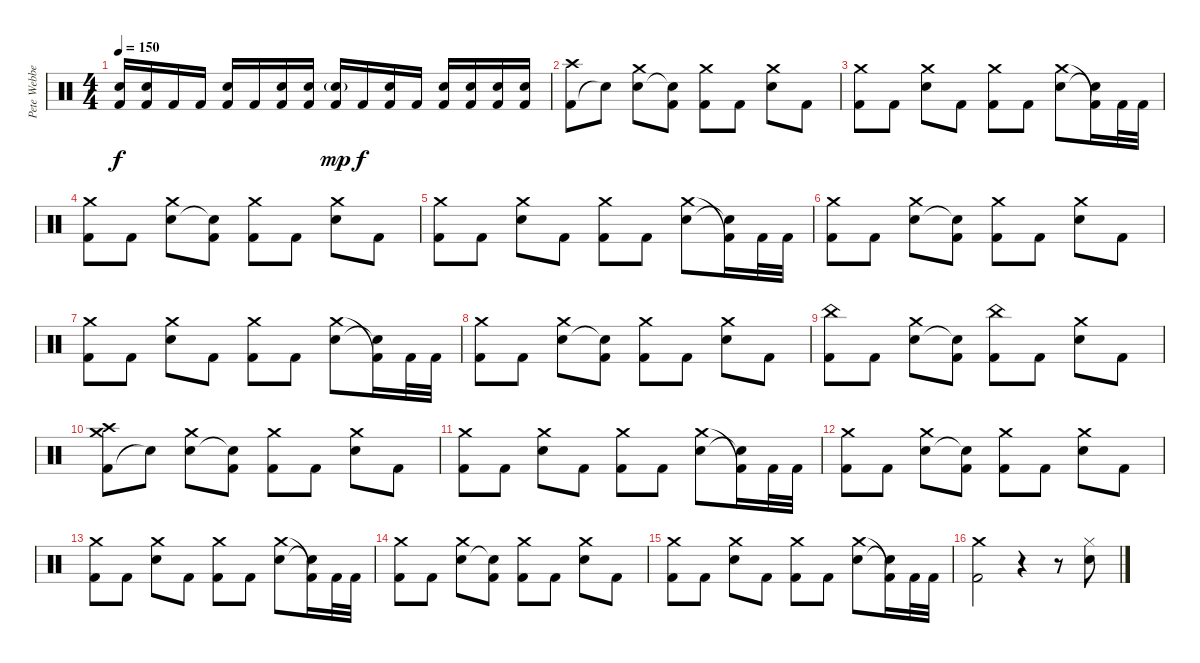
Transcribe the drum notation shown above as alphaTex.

\track ("Pete Webber" "Pete Webbe") {instrument percussion}
\staff {score}
\articulation defaults
\ts (4 4)
\tempo 150
\clef neutral
\ks c
("Electric Snare (hit)" "Kick (hit) 2").16{dy f} ("Electric Snare (hit)" "Kick (hit) 2").16 "Kick (hit) 2".16 "Kick (hit) 2".16 ("Electric Snare (hit)" "Kick (hit) 2").16 "Kick (hit) 2".16 ("Electric Snare (hit)" "Kick (hit) 2").16 ("Electric Snare (hit)" "Kick (hit) 2").16 ("Electric Snare (hit)"{g} "Kick (hit) 2").16{dy mp} "Kick (hit) 2".16{dy f} ("Electric Snare (hit)" "Kick (hit) 2").16 "Kick (hit) 2".16 ("Electric Snare (hit)" "Kick (hit) 2").16 ("Electric Snare (hit)" "Kick (hit) 2").16 ("Electric Snare (hit)" "Kick (hit) 2").16 ("Electric Snare (hit)" "Kick (hit) 2").16 |
("Kick (hit) 2" "Crash high (hit)").8 "Snare (hit)"{t}.8 ("Electric Snare (hit)" "Crash medium (hit)").8 ("Snare (hit)"{t} "Kick (hit) 2").8 ("Kick (hit) 2" "Crash medium (hit)").8 "Kick (hit) 2".8 ("Electric Snare (hit)" "Crash medium (hit)").8 "Kick (hit) 2".8 |
("Kick (hit) 2" "Crash medium (hit)").8 "Kick (hit) 2".8 ("Electric Snare (hit)" "Crash medium (hit)").8 "Kick (hit) 2".8 ("Kick (hit) 2" "Crash medium (hit)").8 "Kick (hit) 2".8 ("Electric Snare (hit)" "Crash medium (hit)").8 ("Snare (hit)"{t} "Kick (hit) 2"{t}).16 "Kick (hit) 2".32 "Kick (hit) 2".32 |
("Kick (hit) 2" "Crash medium (hit)").8 "Kick (hit) 2".8 ("Electric Snare (hit)" "Crash medium (hit)").8 ("Snare (hit)"{t} "Kick (hit) 2").8 ("Kick (hit) 2" "Crash medium (hit)").8 "Kick (hit) 2".8 ("Electric Snare (hit)" "Crash medium (hit)").8 "Kick (hit) 2".8 |
("Kick (hit) 2" "Crash medium (hit)").8 "Kick (hit) 2".8 ("Electric Snare (hit)" "Crash medium (hit)").8 "Kick (hit) 2".8 ("Kick (hit) 2" "Crash medium (hit)").8 "Kick (hit) 2".8 ("Electric Snare (hit)" "Crash medium (hit)").8 ("Snare (hit)"{t} "Kick (hit) 2"{t}).16 "Kick (hit) 2".32 "Kick (hit) 2".32 |
("Kick (hit) 2" "Crash medium (hit)").8 "Kick (hit) 2".8 ("Electric Snare (hit)" "Crash medium (hit)").8 ("Snare (hit)"{t} "Kick (hit) 2").8 ("Kick (hit) 2" "Crash medium (hit)").8 "Kick (hit) 2".8 ("Electric Snare (hit)" "Crash medium (hit)").8 "Kick (hit) 2".8 |
("Kick (hit) 2" "Crash medium (hit)").8 "Kick (hit) 2".8 ("Electric Snare (hit)" "Crash medium (hit)").8 "Kick (hit) 2".8 ("Kick (hit) 2" "Crash medium (hit)").8 "Kick (hit) 2".8 ("Electric Snare (hit)" "Crash medium (hit)").8 ("Snare (hit)"{t} "Kick (hit) 2"{t}).16 "Kick (hit) 2".32 "Kick (hit) 2".32 |
("Kick (hit) 2" "Crash medium (hit)").8 "Kick (hit) 2".8 ("Electric Snare (hit)" "Crash medium (hit)").8 ("Snare (hit)"{t} "Kick (hit) 2").8 ("Kick (hit) 2" "Crash medium (hit)").8 "Kick (hit) 2".8 ("Electric Snare (hit)" "Crash medium (hit)").8 "Kick (hit) 2".8 |
("Kick (hit) 2" "China (hit)").8 "Kick (hit) 2".8 ("Electric Snare (hit)" "Crash medium (hit)").8 ("Snare (hit)"{t} "Kick (hit) 2").8 ("Kick (hit) 2" "China (hit)").8 "Kick (hit) 2".8 ("Electric Snare (hit)" "Crash medium (hit)").8 "Kick (hit) 2".8 |
("Kick (hit) 2" "Crash high (hit)" "Crash medium (hit)").8 "Snare (hit)"{t}.8 ("Electric Snare (hit)" "Crash medium (hit)").8 ("Snare (hit)"{t} "Kick (hit) 2").8 ("Kick (hit) 2" "Crash medium (hit)").8 "Kick (hit) 2".8 ("Electric Snare (hit)" "Crash medium (hit)").8 "Kick (hit) 2".8 |
("Kick (hit) 2" "Crash medium (hit)").8 "Kick (hit) 2".8 ("Electric Snare (hit)" "Crash medium (hit)").8 "Kick (hit) 2".8 ("Kick (hit) 2" "Crash medium (hit)").8 "Kick (hit) 2".8 ("Electric Snare (hit)" "Crash medium (hit)").8 ("Snare (hit)"{t} "Kick (hit) 2"{t}).16 "Kick (hit) 2".32 "Kick (hit) 2".32 |
("Kick (hit) 2" "Crash medium (hit)").8 "Kick (hit) 2".8 ("Electric Snare (hit)" "Crash medium (hit)").8 ("Snare (hit)"{t} "Kick (hit) 2").8 ("Kick (hit) 2" "Crash medium (hit)").8 "Kick (hit) 2".8 ("Electric Snare (hit)" "Crash medium (hit)").8 "Kick (hit) 2".8 |
("Kick (hit) 2" "Crash medium (hit)").8 "Kick (hit) 2".8 ("Electric Snare (hit)" "Crash medium (hit)").8 "Kick (hit) 2".8 ("Kick (hit) 2" "Crash medium (hit)").8 "Kick (hit) 2".8 ("Electric Snare (hit)" "Crash medium (hit)").8 ("Snare (hit)"{t} "Kick (hit) 2"{t}).16 "Kick (hit) 2".32 "Kick (hit) 2".32 |
("Kick (hit) 2" "Crash medium (hit)").8 "Kick (hit) 2".8 ("Electric Snare (hit)" "Crash medium (hit)").8 ("Snare (hit)"{t} "Kick (hit) 2").8 ("Kick (hit) 2" "Crash medium (hit)").8 "Kick (hit) 2".8 ("Electric Snare (hit)" "Crash medium (hit)").8 "Kick (hit) 2".8 |
("Kick (hit) 2" "Crash medium (hit)").8 "Kick (hit) 2".8 ("Electric Snare (hit)" "Crash medium (hit)").8 "Kick (hit) 2".8 ("Kick (hit) 2" "Crash medium (hit)").8 "Kick (hit) 2".8 ("Electric Snare (hit)" "Crash medium (hit)").8 ("Snare (hit)"{t} "Kick (hit) 2"{t}).16 "Kick (hit) 2".32 "Kick (hit) 2".32 |
("Kick (hit) 2" "Crash medium (hit)").2 r.4 r.8 ("Hi-Hat (closed)" "Electric Snare (hit)").8
